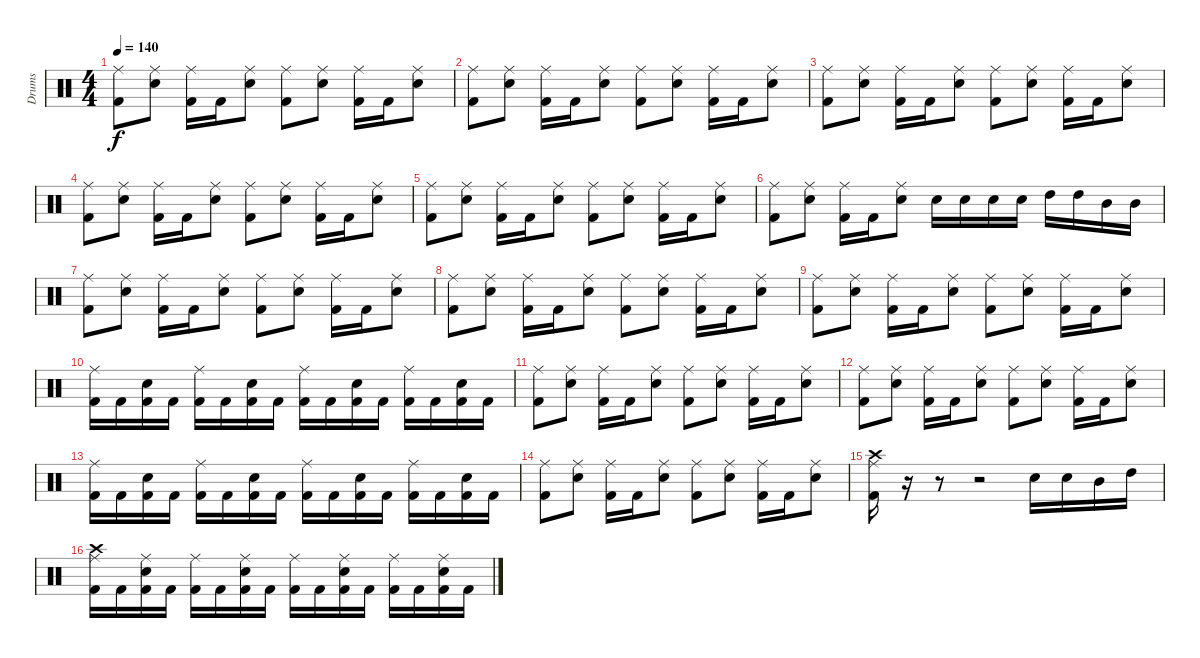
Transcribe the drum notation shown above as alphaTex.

\track ("Drums" "Drums") {instrument percussion}
\staff {score}
\articulation defaults
\ts (4 4)
\tempo 140
\clef neutral
\ks c
("Kick (hit) 2" "Ride (middle)").8{dy f} ("Snare (hit) 2" "Ride (middle)").8 ("Kick (hit) 2" "Ride (middle)").16 "Kick (hit) 2".16 ("Snare (hit) 2" "Ride (middle)").8 ("Kick (hit) 2" "Ride (middle)").8 ("Snare (hit) 2" "Ride (middle)").8 ("Kick (hit) 2" "Ride (middle)").16 "Kick (hit) 2".16 ("Snare (hit) 2" "Ride (middle)").8 |
("Kick (hit) 2" "Ride (middle)").8 ("Snare (hit) 2" "Ride (middle)").8 ("Kick (hit) 2" "Ride (middle)").16 "Kick (hit) 2".16 ("Snare (hit) 2" "Ride (middle)").8 ("Kick (hit) 2" "Ride (middle)").8 ("Snare (hit) 2" "Ride (middle)").8 ("Kick (hit) 2" "Ride (middle)").16 "Kick (hit) 2".16 ("Snare (hit) 2" "Ride (middle)").8 |
("Kick (hit) 2" "Ride (middle)").8 ("Snare (hit) 2" "Ride (middle)").8 ("Kick (hit) 2" "Ride (middle)").16 "Kick (hit) 2".16 ("Snare (hit) 2" "Ride (middle)").8 ("Kick (hit) 2" "Ride (middle)").8 ("Snare (hit) 2" "Ride (middle)").8 ("Kick (hit) 2" "Ride (middle)").16 "Kick (hit) 2".16 ("Snare (hit) 2" "Ride (middle)").8 |
("Kick (hit) 2" "Ride (middle)").8 ("Snare (hit) 2" "Ride (middle)").8 ("Kick (hit) 2" "Ride (middle)").16 "Kick (hit) 2".16 ("Snare (hit) 2" "Ride (middle)").8 ("Kick (hit) 2" "Ride (middle)").8 ("Snare (hit) 2" "Ride (middle)").8 ("Kick (hit) 2" "Ride (middle)").16 "Kick (hit) 2".16 ("Snare (hit) 2" "Ride (middle)").8 |
("Kick (hit) 2" "Ride (middle)").8 ("Snare (hit) 2" "Ride (middle)").8 ("Kick (hit) 2" "Ride (middle)").16 "Kick (hit) 2".16 ("Snare (hit) 2" "Ride (middle)").8 ("Kick (hit) 2" "Ride (middle)").8 ("Snare (hit) 2" "Ride (middle)").8 ("Kick (hit) 2" "Ride (middle)").16 "Kick (hit) 2".16 ("Snare (hit) 2" "Ride (middle)").8 |
("Kick (hit) 2" "Ride (middle)").8 ("Snare (hit) 2" "Ride (middle)").8 ("Kick (hit) 2" "Ride (middle)").16 "Kick (hit) 2".16 ("Snare (hit) 2" "Ride (middle)").8 "Snare (hit) 2".16 "Snare (hit) 2".16 "Snare (hit) 2".16 "Snare (hit) 2".16 "High Tom (hit)".16 "High Tom (hit)".16 "Mid Tom (hit)".16 "Mid Tom (hit)".16 |
("Kick (hit) 2" "Ride (middle)").8 ("Snare (hit) 2" "Ride (middle)").8 ("Kick (hit) 2" "Ride (middle)").16 "Kick (hit) 2".16 ("Snare (hit) 2" "Ride (middle)").8 ("Kick (hit) 2" "Ride (middle)").8 ("Snare (hit) 2" "Ride (middle)").8 ("Kick (hit) 2" "Ride (middle)").16 "Kick (hit) 2".16 ("Snare (hit) 2" "Ride (middle)").8 |
("Kick (hit) 2" "Ride (middle)").8 ("Snare (hit) 2" "Ride (middle)").8 ("Kick (hit) 2" "Ride (middle)").16 "Kick (hit) 2".16 ("Snare (hit) 2" "Ride (middle)").8 ("Kick (hit) 2" "Ride (middle)").8 ("Snare (hit) 2" "Ride (middle)").8 ("Kick (hit) 2" "Ride (middle)").16 "Kick (hit) 2".16 ("Snare (hit) 2" "Ride (middle)").8 |
("Kick (hit) 2" "Ride (middle)").8 ("Snare (hit) 2" "Ride (middle)").8 ("Kick (hit) 2" "Ride (middle)").16 "Kick (hit) 2".16 ("Snare (hit) 2" "Ride (middle)").8 ("Kick (hit) 2" "Ride (middle)").8 ("Snare (hit) 2" "Ride (middle)").8 ("Kick (hit) 2" "Ride (middle)").16 "Kick (hit) 2".16 ("Snare (hit) 2" "Ride (middle)").8 |
("Kick (hit) 2" "Ride (middle)").16 "Kick (hit) 2".16 ("Kick (hit) 2" "Snare (hit) 2").16 "Kick (hit) 2".16 ("Kick (hit) 2" "Ride (middle)").16 "Kick (hit) 2".16 ("Kick (hit) 2" "Snare (hit) 2").16 "Kick (hit) 2".16 ("Kick (hit) 2" "Ride (middle)").16 "Kick (hit) 2".16 ("Kick (hit) 2" "Snare (hit) 2").16 "Kick (hit) 2".16 ("Kick (hit) 2" "Ride (middle)").16 "Kick (hit) 2".16 ("Kick (hit) 2" "Snare (hit) 2").16 "Kick (hit) 2".16 |
("Kick (hit) 2" "Ride (middle)").8 ("Snare (hit) 2" "Ride (middle)").8 ("Kick (hit) 2" "Ride (middle)").16 "Kick (hit) 2".16 ("Snare (hit) 2" "Ride (middle)").8 ("Kick (hit) 2" "Ride (middle)").8 ("Snare (hit) 2" "Ride (middle)").8 ("Kick (hit) 2" "Ride (middle)").16 "Kick (hit) 2".16 ("Snare (hit) 2" "Ride (middle)").8 |
("Kick (hit) 2" "Ride (middle)").8 ("Snare (hit) 2" "Ride (middle)").8 ("Kick (hit) 2" "Ride (middle)").16 "Kick (hit) 2".16 ("Snare (hit) 2" "Ride (middle)").8 ("Kick (hit) 2" "Ride (middle)").8 ("Snare (hit) 2" "Ride (middle)").8 ("Kick (hit) 2" "Ride (middle)").16 "Kick (hit) 2".16 ("Snare (hit) 2" "Ride (middle)").8 |
("Kick (hit) 2" "Ride (middle)").16 "Kick (hit) 2".16 ("Kick (hit) 2" "Snare (hit) 2").16 "Kick (hit) 2".16 ("Kick (hit) 2" "Ride (middle)").16 "Kick (hit) 2".16 ("Kick (hit) 2" "Snare (hit) 2").16 "Kick (hit) 2".16 ("Kick (hit) 2" "Ride (middle)").16 "Kick (hit) 2".16 ("Kick (hit) 2" "Snare (hit) 2").16 "Kick (hit) 2".16 ("Kick (hit) 2" "Ride (middle)").16 "Kick (hit) 2".16 ("Kick (hit) 2" "Snare (hit) 2").16 "Kick (hit) 2".16 |
("Kick (hit) 2" "Ride (middle)").8 ("Snare (hit) 2" "Ride (middle)").8 ("Kick (hit) 2" "Ride (middle)").16 "Kick (hit) 2".16 ("Snare (hit) 2" "Ride (middle)").8 ("Kick (hit) 2" "Ride (middle)").8 ("Snare (hit) 2" "Ride (middle)").8 ("Kick (hit) 2" "Ride (middle)").16 "Kick (hit) 2".16 ("Snare (hit) 2" "Ride (middle)").8 |
("Kick (hit) 2" "Crash high (hit)" "Ride (middle)").16 r.16 r.8 r.2 "Snare (hit) 2".16 "Snare (hit) 2".16 "Mid Tom (hit)".16 "High Tom (hit)".16 |
("Kick (hit) 2" "Crash high (hit)" "Ride (middle)").16 "Kick (hit) 2".16 ("Kick (hit) 2" "Snare (hit) 2" "Ride (middle)").16 "Kick (hit) 2".16 ("Kick (hit) 2" "Ride (middle)").16 "Kick (hit) 2".16 ("Kick (hit) 2" "Snare (hit) 2" "Ride (middle)").16 "Kick (hit) 2".16 ("Kick (hit) 2" "Ride (middle)").16 "Kick (hit) 2".16 ("Kick (hit) 2" "Snare (hit) 2" "Ride (middle)").16 "Kick (hit) 2".16 ("Kick (hit) 2" "Ride (middle)").16 "Kick (hit) 2".16 ("Kick (hit) 2" "Snare (hit) 2" "Ride (middle)").16 "Kick (hit) 2".16
